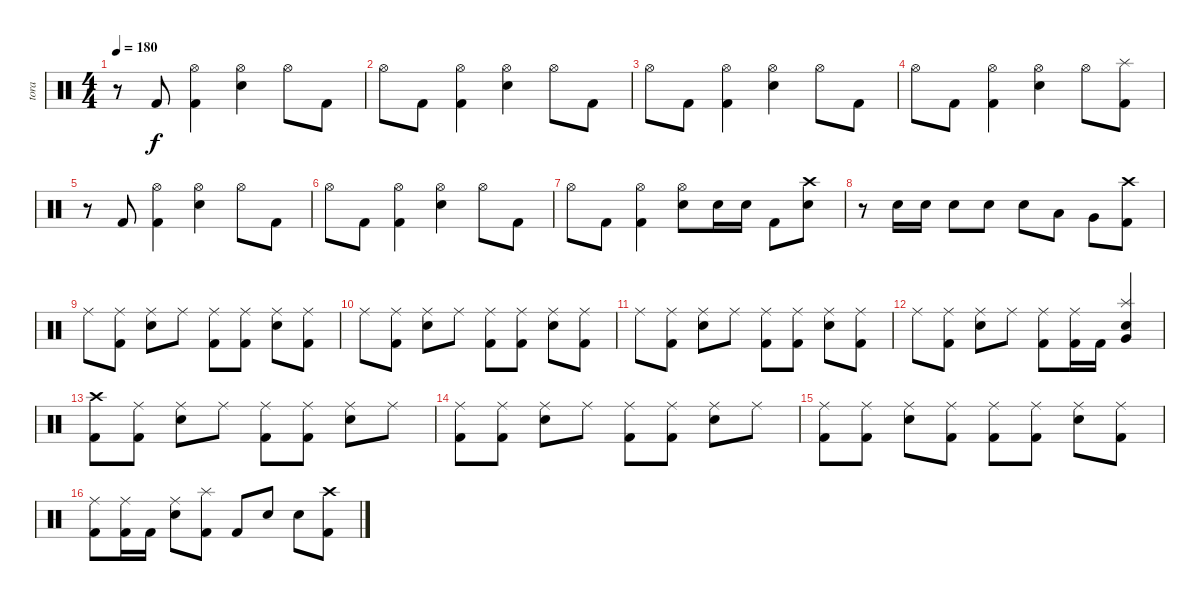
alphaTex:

\track ("tora" "tora") {instrument percussion}
\staff {score}
\articulation defaults
\ts (4 4)
\tempo 180
\clef neutral
\ks c
r.8{dy f} "Kick (hit) 2".8 ("Hi-Hat (open)" "Kick (hit) 2").4 ("Hi-Hat (open)" "Snare (hit) 2").4 "Hi-Hat (open)".8 "Kick (hit) 2".8 |
"Hi-Hat (open)".8 "Kick (hit) 2".8 ("Hi-Hat (open)" "Kick (hit) 2").4 ("Hi-Hat (open)" "Snare (hit) 2").4 "Hi-Hat (open)".8 "Kick (hit) 2".8 |
"Hi-Hat (open)".8 "Kick (hit) 2".8 ("Hi-Hat (open)" "Kick (hit) 2").4 ("Hi-Hat (open)" "Snare (hit) 2").4 "Hi-Hat (open)".8 "Kick (hit) 2".8 |
"Hi-Hat (open)".8 "Kick (hit) 2".8 ("Hi-Hat (open)" "Kick (hit) 2").4 ("Hi-Hat (open)" "Snare (hit) 2").4 "Hi-Hat (open)".8 ("Splash (hit)" "Kick (hit) 2").8 |
r.8 "Kick (hit) 2".8 ("Hi-Hat (open)" "Kick (hit) 2").4 ("Hi-Hat (open)" "Snare (hit) 2").4 "Hi-Hat (open)".8 "Kick (hit) 2".8 |
"Hi-Hat (open)".8 "Kick (hit) 2".8 ("Hi-Hat (open)" "Kick (hit) 2").4 ("Hi-Hat (open)" "Snare (hit) 2").4 "Hi-Hat (open)".8 "Kick (hit) 2".8 |
"Hi-Hat (open)".8 "Kick (hit) 2".8 ("Hi-Hat (open)" "Kick (hit) 2").4 ("Hi-Hat (open)" "Snare (hit) 2").8 "Snare (hit) 2".16 "Snare (hit) 2".16 "Kick (hit) 2".8 ("Crash high (hit)" "Snare (hit) 2").8 |
r.8 "Snare (hit) 2".16 "Snare (hit) 2".16 "Snare (hit) 2".8 "Snare (hit) 2".8 "Snare (hit) 2".8 "Low Tom (hit)".8 "Very Low Tom (hit)".8 ("Crash high (hit)" "Kick (hit) 2").8 |
"Ride (middle)".8 ("Ride (middle)" "Kick (hit) 2").8 ("Ride (middle)" "Snare (hit) 2").8 "Ride (middle)".8 ("Ride (middle)" "Kick (hit) 2").8 ("Ride (middle)" "Kick (hit) 2").8 ("Ride (middle)" "Snare (hit) 2").8 ("Ride (middle)" "Kick (hit) 2").8 |
"Ride (middle)".8 ("Ride (middle)" "Kick (hit) 2").8 ("Ride (middle)" "Snare (hit) 2").8 "Ride (middle)".8 ("Ride (middle)" "Kick (hit) 2").8 ("Ride (middle)" "Kick (hit) 2").8 ("Ride (middle)" "Snare (hit) 2").8 ("Ride (middle)" "Kick (hit) 2").8 |
"Ride (middle)".8 ("Ride (middle)" "Kick (hit) 2").8 ("Ride (middle)" "Snare (hit) 2").8 "Ride (middle)".8 ("Ride (middle)" "Kick (hit) 2").8 ("Ride (middle)" "Kick (hit) 2").8 ("Ride (middle)" "Snare (hit) 2").8 ("Ride (middle)" "Kick (hit) 2").8 |
"Ride (middle)".8 ("Ride (middle)" "Kick (hit) 2").8 ("Ride (middle)" "Snare (hit) 2").8 "Ride (middle)".8 ("Ride (middle)" "Kick (hit) 2").8 ("Ride (middle)" "Kick (hit) 2").16 "Kick (hit) 2".16 ("Splash (hit)" "Snare (hit) 2" "Very Low Tom (hit)").4 |
("Crash high (hit)" "Kick (hit) 2").8 ("Ride (middle)" "Kick (hit) 2").8 ("Ride (middle)" "Snare (hit) 2").8 "Ride (middle)".8 ("Ride (middle)" "Kick (hit) 2").8 ("Ride (middle)" "Kick (hit) 2").8 ("Ride (middle)" "Snare (hit) 2").8 "Ride (middle)".8 |
("Ride (middle)" "Kick (hit) 2").8 ("Ride (middle)" "Kick (hit) 2").8 ("Ride (middle)" "Snare (hit) 2").8 "Ride (middle)".8 ("Ride (middle)" "Kick (hit) 2").8 ("Ride (middle)" "Kick (hit) 2").8 ("Ride (middle)" "Snare (hit) 2").8 "Ride (middle)".8 |
("Ride (middle)" "Kick (hit) 2").8 ("Ride (middle)" "Kick (hit) 2").8 ("Ride (middle)" "Snare (hit) 2").8 ("Ride (middle)" "Kick (hit) 2").8 ("Ride (middle)" "Kick (hit) 2").8 ("Ride (middle)" "Kick (hit) 2").8 ("Ride (middle)" "Snare (hit) 2").8 ("Ride (middle)" "Kick (hit) 2").8 |
("Ride (middle)" "Kick (hit) 2").8 ("Ride (middle)" "Kick (hit) 2").16 "Kick (hit) 2".16 ("Ride (middle)" "Snare (hit) 2").8 ("Splash (hit)" "Kick (hit) 2").8 "Kick (hit) 2".8 "Snare (hit) 2".8 "Snare (hit) 2".8 ("Crash high (hit)" "Kick (hit) 2").8
